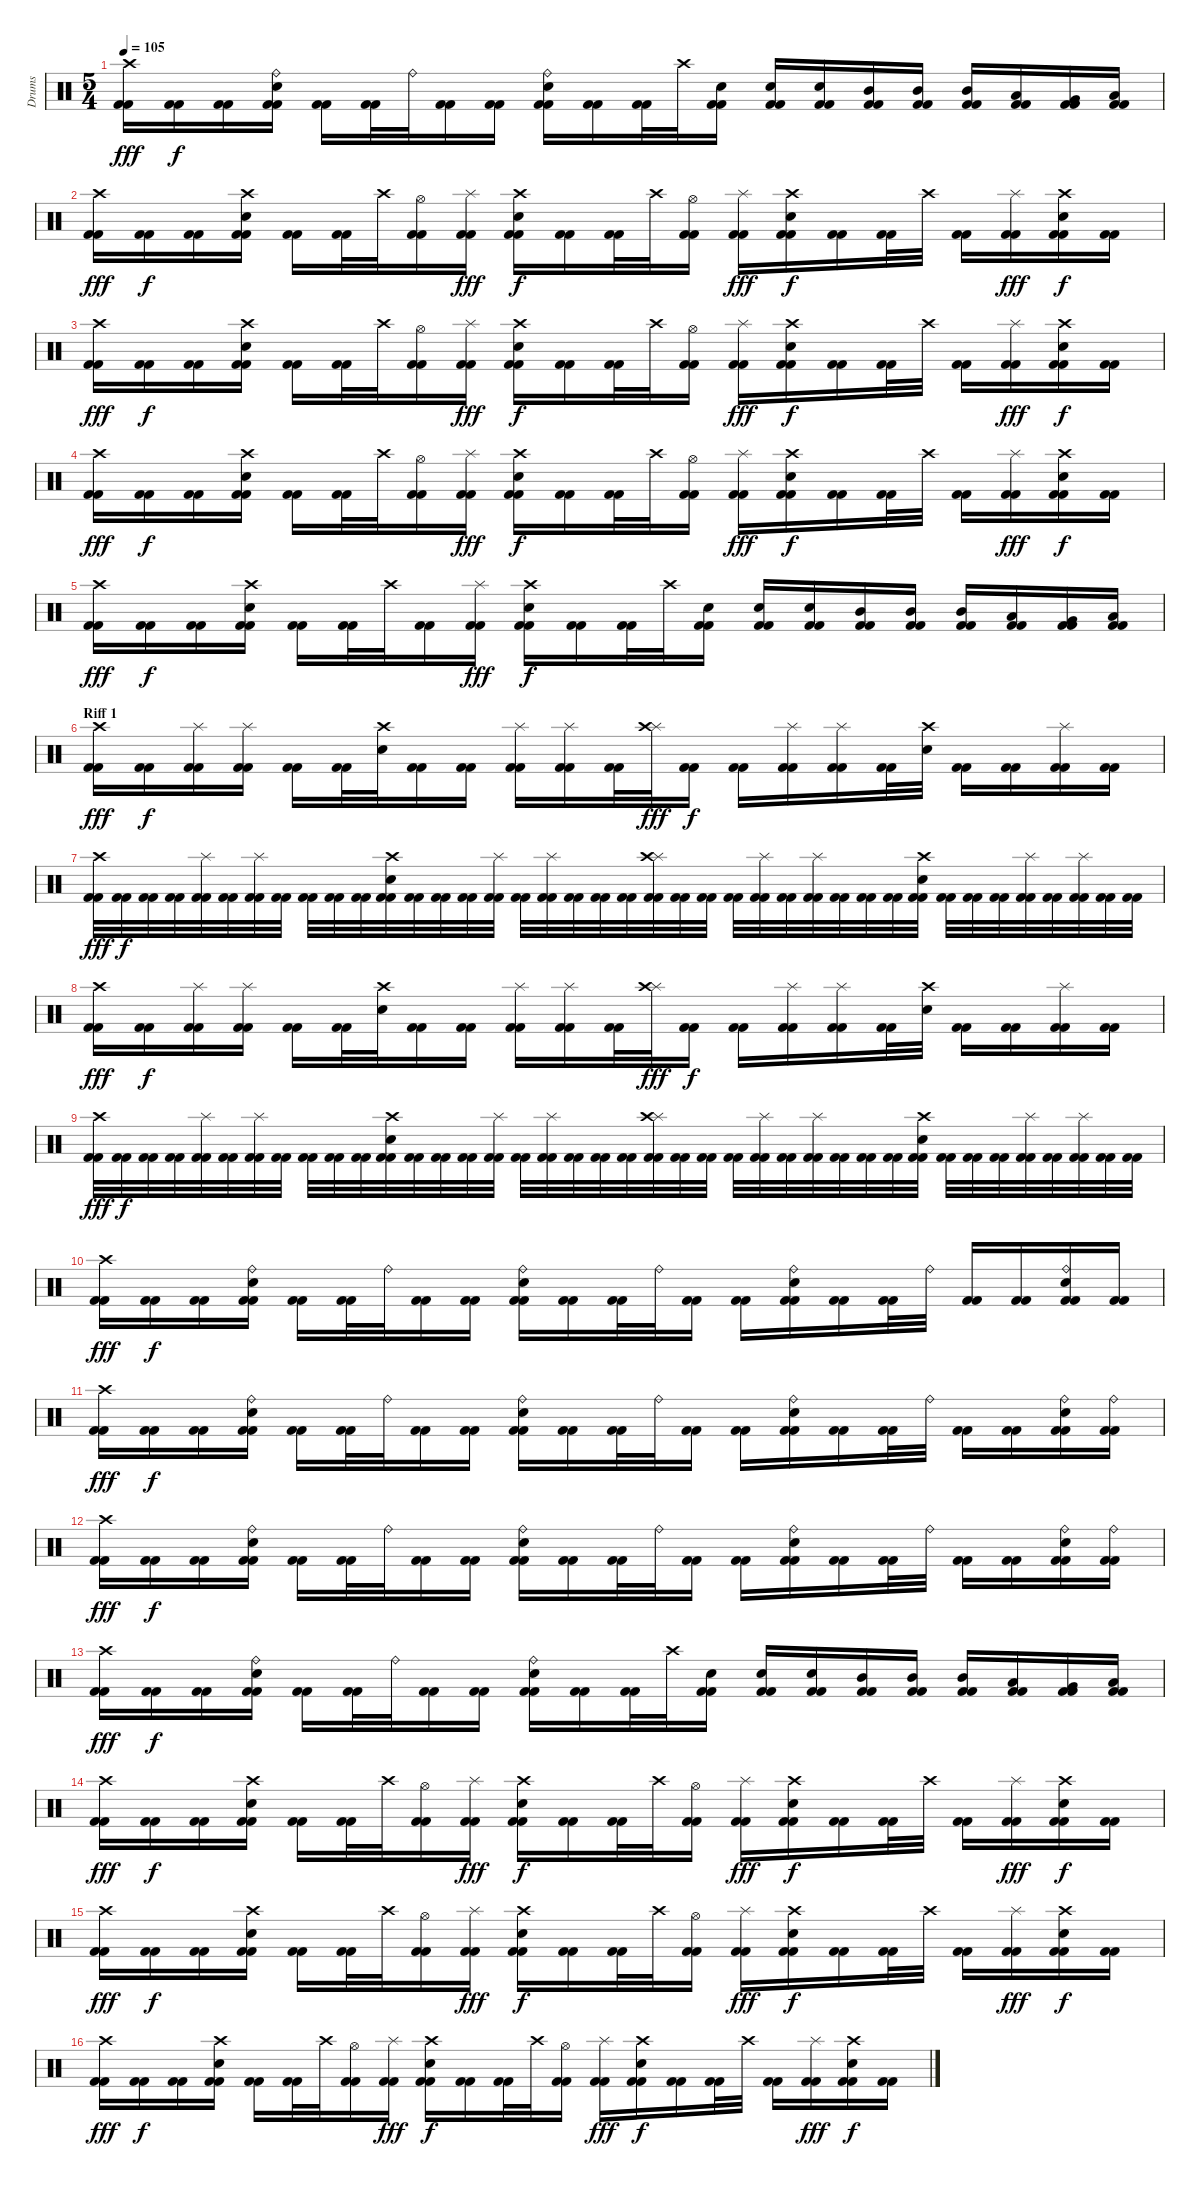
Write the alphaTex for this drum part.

\track ("Drums" "Drums") {instrument percussion}
\staff {score}
\articulation defaults
\ts (5 4)
\tempo 105
\clef neutral
\ks c
("Crash high (hit)" "Kick (hit) 2" "Kick (hit) 2").16{dy fff} ("Kick (hit) 2" "Kick (hit) 2").16{dy f} ("Kick (hit) 2" "Kick (hit) 2").16 ("Ride (bell)" "Electric Snare (hit)" "Kick (hit) 2" "Kick (hit) 2").16 ("Kick (hit) 2" "Kick (hit) 2").16 ("Kick (hit) 2" "Kick (hit) 2").32 "Ride (bell)".32 ("Kick (hit) 2" "Kick (hit) 2").16 ("Kick (hit) 2" "Kick (hit) 2").16 ("Ride (bell)" "Electric Snare (hit)" "Kick (hit) 2" "Kick (hit) 2").16 ("Kick (hit) 2" "Kick (hit) 2").16 ("Kick (hit) 2" "Kick (hit) 2").32 "Crash high (hit)".32 ("Electric Snare (hit)" "Kick (hit) 2" "Kick (hit) 2").16 ("Electric Snare (hit)" "Kick (hit) 2" "Kick (hit) 2").16 ("Electric Snare (hit)" "Kick (hit) 2" "Kick (hit) 2").16 ("Mid Tom (hit)" "Kick (hit) 2" "Kick (hit) 2").16 ("Mid Tom (hit)" "Kick (hit) 2" "Kick (hit) 2").16 ("Mid Tom (hit)" "Kick (hit) 2" "Kick (hit) 2").16 ("Low Tom (hit)" "Kick (hit) 2" "Kick (hit) 2").16 ("Very Low Tom (hit)" "Kick (hit) 2" "Kick (hit) 2").16 ("Low Floor Tom (hit)" "Kick (hit) 2" "Kick (hit) 2").16 |
("Crash high (hit)" "Kick (hit) 2" "Kick (hit) 2").16{dy fff} ("Kick (hit) 2" "Kick (hit) 2").16{dy f} ("Kick (hit) 2" "Kick (hit) 2").16 ("Crash high (hit)" "Electric Snare (hit)" "Kick (hit) 2" "Kick (hit) 2").16 ("Kick (hit) 2" "Kick (hit) 2").16 ("Kick (hit) 2" "Kick (hit) 2").32 "Crash high (hit)".32 ("Hi-Hat (open)" "Kick (hit) 2" "Kick (hit) 2").16 ("Splash (hit)" "Kick (hit) 2" "Kick (hit) 2").16{dy fff} ("Crash high (hit)" "Electric Snare (hit)" "Kick (hit) 2" "Kick (hit) 2").16{dy f} ("Kick (hit) 2" "Kick (hit) 2").16 ("Kick (hit) 2" "Kick (hit) 2").32 "Crash high (hit)".32 ("Hi-Hat (open)" "Kick (hit) 2" "Kick (hit) 2").16 ("Splash (hit)" "Kick (hit) 2" "Kick (hit) 2").16{dy fff} ("Crash high (hit)" "Electric Snare (hit)" "Kick (hit) 2" "Kick (hit) 2").16{dy f} ("Kick (hit) 2" "Kick (hit) 2").16 ("Kick (hit) 2" "Kick (hit) 2").32 "Crash high (hit)".32 ("Kick (hit) 2" "Kick (hit) 2").16 ("Splash (hit)" "Kick (hit) 2" "Kick (hit) 2").16{dy fff} ("Crash high (hit)" "Electric Snare (hit)" "Kick (hit) 2" "Kick (hit) 2").16{dy f} ("Kick (hit) 2" "Kick (hit) 2").16 |
("Crash high (hit)" "Kick (hit) 2" "Kick (hit) 2").16{dy fff} ("Kick (hit) 2" "Kick (hit) 2").16{dy f} ("Kick (hit) 2" "Kick (hit) 2").16 ("Crash high (hit)" "Electric Snare (hit)" "Kick (hit) 2" "Kick (hit) 2").16 ("Kick (hit) 2" "Kick (hit) 2").16 ("Kick (hit) 2" "Kick (hit) 2").32 "Crash high (hit)".32 ("Hi-Hat (open)" "Kick (hit) 2" "Kick (hit) 2").16 ("Splash (hit)" "Kick (hit) 2" "Kick (hit) 2").16{dy fff} ("Crash high (hit)" "Electric Snare (hit)" "Kick (hit) 2" "Kick (hit) 2").16{dy f} ("Kick (hit) 2" "Kick (hit) 2").16 ("Kick (hit) 2" "Kick (hit) 2").32 "Crash high (hit)".32 ("Hi-Hat (open)" "Kick (hit) 2" "Kick (hit) 2").16 ("Splash (hit)" "Kick (hit) 2" "Kick (hit) 2").16{dy fff} ("Crash high (hit)" "Electric Snare (hit)" "Kick (hit) 2" "Kick (hit) 2").16{dy f} ("Kick (hit) 2" "Kick (hit) 2").16 ("Kick (hit) 2" "Kick (hit) 2").32 "Crash high (hit)".32 ("Kick (hit) 2" "Kick (hit) 2").16 ("Splash (hit)" "Kick (hit) 2" "Kick (hit) 2").16{dy fff} ("Crash high (hit)" "Electric Snare (hit)" "Kick (hit) 2" "Kick (hit) 2").16{dy f} ("Kick (hit) 2" "Kick (hit) 2").16 |
("Crash high (hit)" "Kick (hit) 2" "Kick (hit) 2").16{dy fff} ("Kick (hit) 2" "Kick (hit) 2").16{dy f} ("Kick (hit) 2" "Kick (hit) 2").16 ("Crash high (hit)" "Electric Snare (hit)" "Kick (hit) 2" "Kick (hit) 2").16 ("Kick (hit) 2" "Kick (hit) 2").16 ("Kick (hit) 2" "Kick (hit) 2").32 "Crash high (hit)".32 ("Hi-Hat (open)" "Kick (hit) 2" "Kick (hit) 2").16 ("Splash (hit)" "Kick (hit) 2" "Kick (hit) 2").16{dy fff} ("Crash high (hit)" "Electric Snare (hit)" "Kick (hit) 2" "Kick (hit) 2").16{dy f} ("Kick (hit) 2" "Kick (hit) 2").16 ("Kick (hit) 2" "Kick (hit) 2").32 "Crash high (hit)".32 ("Hi-Hat (open)" "Kick (hit) 2" "Kick (hit) 2").16 ("Splash (hit)" "Kick (hit) 2" "Kick (hit) 2").16{dy fff} ("Crash high (hit)" "Electric Snare (hit)" "Kick (hit) 2" "Kick (hit) 2").16{dy f} ("Kick (hit) 2" "Kick (hit) 2").16 ("Kick (hit) 2" "Kick (hit) 2").32 "Crash high (hit)".32 ("Kick (hit) 2" "Kick (hit) 2").16 ("Splash (hit)" "Kick (hit) 2" "Kick (hit) 2").16{dy fff} ("Crash high (hit)" "Electric Snare (hit)" "Kick (hit) 2" "Kick (hit) 2").16{dy f} ("Kick (hit) 2" "Kick (hit) 2").16 |
("Crash high (hit)" "Kick (hit) 2" "Kick (hit) 2").16{dy fff} ("Kick (hit) 2" "Kick (hit) 2").16{dy f} ("Kick (hit) 2" "Kick (hit) 2").16 ("Crash high (hit)" "Electric Snare (hit)" "Kick (hit) 2" "Kick (hit) 2").16 ("Kick (hit) 2" "Kick (hit) 2").16 ("Kick (hit) 2" "Kick (hit) 2").32 "Crash high (hit)".32 ("Kick (hit) 2" "Kick (hit) 2").16 ("Splash (hit)" "Kick (hit) 2" "Kick (hit) 2").16{dy fff} ("Crash high (hit)" "Electric Snare (hit)" "Kick (hit) 2" "Kick (hit) 2").16{dy f} ("Kick (hit) 2" "Kick (hit) 2").16 ("Kick (hit) 2" "Kick (hit) 2").32 "Crash high (hit)".32 ("Electric Snare (hit)" "Kick (hit) 2" "Kick (hit) 2").16 ("Electric Snare (hit)" "Kick (hit) 2" "Kick (hit) 2").16 ("Electric Snare (hit)" "Kick (hit) 2" "Kick (hit) 2").16 ("Mid Tom (hit)" "Kick (hit) 2" "Kick (hit) 2").16 ("Mid Tom (hit)" "Kick (hit) 2" "Kick (hit) 2").16 ("Mid Tom (hit)" "Kick (hit) 2" "Kick (hit) 2").16 ("Low Tom (hit)" "Kick (hit) 2" "Kick (hit) 2").16 ("Very Low Tom (hit)" "Kick (hit) 2" "Kick (hit) 2").16 ("Low Floor Tom (hit)" "Kick (hit) 2" "Kick (hit) 2").16 |
\section ("" "Riff 1")
("Crash high (hit)" "Kick (hit) 2" "Kick (hit) 2").16{dy fff} ("Kick (hit) 2" "Kick (hit) 2").16{dy f} ("Splash (hit)" "Kick (hit) 2" "Kick (hit) 2").16 ("Splash (hit)" "Kick (hit) 2" "Kick (hit) 2").16 ("Kick (hit) 2" "Kick (hit) 2").16 ("Kick (hit) 2" "Kick (hit) 2").32 ("Crash high (hit)" "Electric Snare (hit)").32 ("Kick (hit) 2" "Kick (hit) 2").16 ("Kick (hit) 2" "Kick (hit) 2").16 ("Splash (hit)" "Kick (hit) 2" "Kick (hit) 2").16 ("Splash (hit)" "Kick (hit) 2" "Kick (hit) 2").16 ("Kick (hit) 2" "Kick (hit) 2").32 ("Splash (hit)" "Crash high (hit)").32{dy fff} ("Kick (hit) 2" "Kick (hit) 2").16{dy f} ("Kick (hit) 2" "Kick (hit) 2").16 ("Splash (hit)" "Kick (hit) 2" "Kick (hit) 2").16 ("Splash (hit)" "Kick (hit) 2" "Kick (hit) 2").16 ("Kick (hit) 2" "Kick (hit) 2").32 ("Crash high (hit)" "Electric Snare (hit)").32 ("Kick (hit) 2" "Kick (hit) 2").16 ("Kick (hit) 2" "Kick (hit) 2").16 ("Splash (hit)" "Kick (hit) 2" "Kick (hit) 2").16 ("Kick (hit) 2" "Kick (hit) 2").16 |
("Crash high (hit)" "Kick (hit) 2" "Kick (hit) 2").32{dy fff} ("Kick (hit) 2" "Kick (hit) 2").32{dy f} ("Kick (hit) 2" "Kick (hit) 2").32 ("Kick (hit) 2" "Kick (hit) 2").32 ("Splash (hit)" "Kick (hit) 2" "Kick (hit) 2").32 ("Kick (hit) 2" "Kick (hit) 2").32 ("Splash (hit)" "Kick (hit) 2" "Kick (hit) 2").32 ("Kick (hit) 2" "Kick (hit) 2").32 ("Kick (hit) 2" "Kick (hit) 2").32 ("Kick (hit) 2" "Kick (hit) 2").32 ("Kick (hit) 2" "Kick (hit) 2").32 ("Crash high (hit)" "Electric Snare (hit)" "Kick (hit) 2" "Kick (hit) 2").32 ("Kick (hit) 2" "Kick (hit) 2").32 ("Kick (hit) 2" "Kick (hit) 2").32 ("Kick (hit) 2" "Kick (hit) 2").32 ("Splash (hit)" "Kick (hit) 2" "Kick (hit) 2").32 ("Kick (hit) 2" "Kick (hit) 2").32 ("Splash (hit)" "Kick (hit) 2" "Kick (hit) 2").32 ("Kick (hit) 2" "Kick (hit) 2").32 ("Kick (hit) 2" "Kick (hit) 2").32 ("Kick (hit) 2" "Kick (hit) 2").32 ("Splash (hit)" "Crash high (hit)" "Kick (hit) 2" "Kick (hit) 2").32 ("Kick (hit) 2" "Kick (hit) 2").32 ("Kick (hit) 2" "Kick (hit) 2").32 ("Kick (hit) 2" "Kick (hit) 2").32 ("Splash (hit)" "Kick (hit) 2" "Kick (hit) 2").32 ("Kick (hit) 2" "Kick (hit) 2").32 ("Splash (hit)" "Kick (hit) 2" "Kick (hit) 2").32 ("Kick (hit) 2" "Kick (hit) 2").32 ("Kick (hit) 2" "Kick (hit) 2").32 ("Kick (hit) 2" "Kick (hit) 2").32 ("Crash high (hit)" "Electric Snare (hit)" "Kick (hit) 2" "Kick (hit) 2").32 ("Kick (hit) 2" "Kick (hit) 2").32 ("Kick (hit) 2" "Kick (hit) 2").32 ("Kick (hit) 2" "Kick (hit) 2").32 ("Splash (hit)" "Kick (hit) 2" "Kick (hit) 2").32 ("Kick (hit) 2" "Kick (hit) 2").32 ("Splash (hit)" "Kick (hit) 2" "Kick (hit) 2").32 ("Kick (hit) 2" "Kick (hit) 2").32 ("Kick (hit) 2" "Kick (hit) 2").32 |
("Crash high (hit)" "Kick (hit) 2" "Kick (hit) 2").16{dy fff} ("Kick (hit) 2" "Kick (hit) 2").16{dy f} ("Splash (hit)" "Kick (hit) 2" "Kick (hit) 2").16 ("Splash (hit)" "Kick (hit) 2" "Kick (hit) 2").16 ("Kick (hit) 2" "Kick (hit) 2").16 ("Kick (hit) 2" "Kick (hit) 2").32 ("Crash high (hit)" "Electric Snare (hit)").32 ("Kick (hit) 2" "Kick (hit) 2").16 ("Kick (hit) 2" "Kick (hit) 2").16 ("Splash (hit)" "Kick (hit) 2" "Kick (hit) 2").16 ("Splash (hit)" "Kick (hit) 2" "Kick (hit) 2").16 ("Kick (hit) 2" "Kick (hit) 2").32 ("Splash (hit)" "Crash high (hit)").32{dy fff} ("Kick (hit) 2" "Kick (hit) 2").16{dy f} ("Kick (hit) 2" "Kick (hit) 2").16 ("Splash (hit)" "Kick (hit) 2" "Kick (hit) 2").16 ("Splash (hit)" "Kick (hit) 2" "Kick (hit) 2").16 ("Kick (hit) 2" "Kick (hit) 2").32 ("Crash high (hit)" "Electric Snare (hit)").32 ("Kick (hit) 2" "Kick (hit) 2").16 ("Kick (hit) 2" "Kick (hit) 2").16 ("Splash (hit)" "Kick (hit) 2" "Kick (hit) 2").16 ("Kick (hit) 2" "Kick (hit) 2").16 |
("Crash high (hit)" "Kick (hit) 2" "Kick (hit) 2").32{dy fff} ("Kick (hit) 2" "Kick (hit) 2").32{dy f} ("Kick (hit) 2" "Kick (hit) 2").32 ("Kick (hit) 2" "Kick (hit) 2").32 ("Splash (hit)" "Kick (hit) 2" "Kick (hit) 2").32 ("Kick (hit) 2" "Kick (hit) 2").32 ("Splash (hit)" "Kick (hit) 2" "Kick (hit) 2").32 ("Kick (hit) 2" "Kick (hit) 2").32 ("Kick (hit) 2" "Kick (hit) 2").32 ("Kick (hit) 2" "Kick (hit) 2").32 ("Kick (hit) 2" "Kick (hit) 2").32 ("Crash high (hit)" "Electric Snare (hit)" "Kick (hit) 2" "Kick (hit) 2").32 ("Kick (hit) 2" "Kick (hit) 2").32 ("Kick (hit) 2" "Kick (hit) 2").32 ("Kick (hit) 2" "Kick (hit) 2").32 ("Splash (hit)" "Kick (hit) 2" "Kick (hit) 2").32 ("Kick (hit) 2" "Kick (hit) 2").32 ("Splash (hit)" "Kick (hit) 2" "Kick (hit) 2").32 ("Kick (hit) 2" "Kick (hit) 2").32 ("Kick (hit) 2" "Kick (hit) 2").32 ("Kick (hit) 2" "Kick (hit) 2").32 ("Splash (hit)" "Crash high (hit)" "Kick (hit) 2" "Kick (hit) 2").32 ("Kick (hit) 2" "Kick (hit) 2").32 ("Kick (hit) 2" "Kick (hit) 2").32 ("Kick (hit) 2" "Kick (hit) 2").32 ("Splash (hit)" "Kick (hit) 2" "Kick (hit) 2").32 ("Kick (hit) 2" "Kick (hit) 2").32 ("Splash (hit)" "Kick (hit) 2" "Kick (hit) 2").32 ("Kick (hit) 2" "Kick (hit) 2").32 ("Kick (hit) 2" "Kick (hit) 2").32 ("Kick (hit) 2" "Kick (hit) 2").32 ("Crash high (hit)" "Electric Snare (hit)" "Kick (hit) 2" "Kick (hit) 2").32 ("Kick (hit) 2" "Kick (hit) 2").32 ("Kick (hit) 2" "Kick (hit) 2").32 ("Kick (hit) 2" "Kick (hit) 2").32 ("Splash (hit)" "Kick (hit) 2" "Kick (hit) 2").32 ("Kick (hit) 2" "Kick (hit) 2").32 ("Splash (hit)" "Kick (hit) 2" "Kick (hit) 2").32 ("Kick (hit) 2" "Kick (hit) 2").32 ("Kick (hit) 2" "Kick (hit) 2").32 |
("Crash high (hit)" "Kick (hit) 2" "Kick (hit) 2").16{dy fff} ("Kick (hit) 2" "Kick (hit) 2").16{dy f} ("Kick (hit) 2" "Kick (hit) 2").16 ("Ride (bell)" "Electric Snare (hit)" "Kick (hit) 2" "Kick (hit) 2").16 ("Kick (hit) 2" "Kick (hit) 2").16 ("Kick (hit) 2" "Kick (hit) 2").32 "Ride (bell)".32 ("Kick (hit) 2" "Kick (hit) 2").16 ("Kick (hit) 2" "Kick (hit) 2").16 ("Ride (bell)" "Electric Snare (hit)" "Kick (hit) 2" "Kick (hit) 2").16 ("Kick (hit) 2" "Kick (hit) 2").16 ("Kick (hit) 2" "Kick (hit) 2").32 "Ride (bell)".32 ("Kick (hit) 2" "Kick (hit) 2").16 ("Kick (hit) 2" "Kick (hit) 2").16 ("Ride (bell)" "Electric Snare (hit)" "Kick (hit) 2" "Kick (hit) 2").16 ("Kick (hit) 2" "Kick (hit) 2").16 ("Kick (hit) 2" "Kick (hit) 2").32 "Ride (bell)".32 ("Kick (hit) 2" "Kick (hit) 2").16 ("Kick (hit) 2" "Kick (hit) 2").16 ("Ride (bell)" "Electric Snare (hit)" "Kick (hit) 2" "Kick (hit) 2").16 ("Kick (hit) 2" "Kick (hit) 2").16 |
("Crash high (hit)" "Kick (hit) 2" "Kick (hit) 2").16{dy fff} ("Kick (hit) 2" "Kick (hit) 2").16{dy f} ("Kick (hit) 2" "Kick (hit) 2").16 ("Ride (bell)" "Electric Snare (hit)" "Kick (hit) 2" "Kick (hit) 2").16 ("Kick (hit) 2" "Kick (hit) 2").16 ("Kick (hit) 2" "Kick (hit) 2").32 "Ride (bell)".32 ("Kick (hit) 2" "Kick (hit) 2").16 ("Kick (hit) 2" "Kick (hit) 2").16 ("Ride (bell)" "Electric Snare (hit)" "Kick (hit) 2" "Kick (hit) 2").16 ("Kick (hit) 2" "Kick (hit) 2").16 ("Kick (hit) 2" "Kick (hit) 2").32 "Ride (bell)".32 ("Kick (hit) 2" "Kick (hit) 2").16 ("Kick (hit) 2" "Kick (hit) 2").16 ("Ride (bell)" "Electric Snare (hit)" "Kick (hit) 2" "Kick (hit) 2").16 ("Kick (hit) 2" "Kick (hit) 2").16 ("Kick (hit) 2" "Kick (hit) 2").32 "Ride (bell)".32 ("Kick (hit) 2" "Kick (hit) 2").16 ("Kick (hit) 2" "Kick (hit) 2").16 ("Ride (bell)" "Electric Snare (hit)" "Kick (hit) 2" "Kick (hit) 2").16 ("Ride (bell)" "Kick (hit) 2" "Kick (hit) 2").16 |
("Crash high (hit)" "Kick (hit) 2" "Kick (hit) 2").16{dy fff} ("Kick (hit) 2" "Kick (hit) 2").16{dy f} ("Kick (hit) 2" "Kick (hit) 2").16 ("Ride (bell)" "Electric Snare (hit)" "Kick (hit) 2" "Kick (hit) 2").16 ("Kick (hit) 2" "Kick (hit) 2").16 ("Kick (hit) 2" "Kick (hit) 2").32 "Ride (bell)".32 ("Kick (hit) 2" "Kick (hit) 2").16 ("Kick (hit) 2" "Kick (hit) 2").16 ("Ride (bell)" "Electric Snare (hit)" "Kick (hit) 2" "Kick (hit) 2").16 ("Kick (hit) 2" "Kick (hit) 2").16 ("Kick (hit) 2" "Kick (hit) 2").32 "Ride (bell)".32 ("Kick (hit) 2" "Kick (hit) 2").16 ("Kick (hit) 2" "Kick (hit) 2").16 ("Ride (bell)" "Electric Snare (hit)" "Kick (hit) 2" "Kick (hit) 2").16 ("Kick (hit) 2" "Kick (hit) 2").16 ("Kick (hit) 2" "Kick (hit) 2").32 "Ride (bell)".32 ("Kick (hit) 2" "Kick (hit) 2").16 ("Kick (hit) 2" "Kick (hit) 2").16 ("Ride (bell)" "Electric Snare (hit)" "Kick (hit) 2" "Kick (hit) 2").16 ("Ride (bell)" "Kick (hit) 2" "Kick (hit) 2").16 |
("Crash high (hit)" "Kick (hit) 2" "Kick (hit) 2").16{dy fff} ("Kick (hit) 2" "Kick (hit) 2").16{dy f} ("Kick (hit) 2" "Kick (hit) 2").16 ("Ride (bell)" "Electric Snare (hit)" "Kick (hit) 2" "Kick (hit) 2").16 ("Kick (hit) 2" "Kick (hit) 2").16 ("Kick (hit) 2" "Kick (hit) 2").32 "Ride (bell)".32 ("Kick (hit) 2" "Kick (hit) 2").16 ("Kick (hit) 2" "Kick (hit) 2").16 ("Ride (bell)" "Electric Snare (hit)" "Kick (hit) 2" "Kick (hit) 2").16 ("Kick (hit) 2" "Kick (hit) 2").16 ("Kick (hit) 2" "Kick (hit) 2").32 "Crash high (hit)".32 ("Electric Snare (hit)" "Kick (hit) 2" "Kick (hit) 2").16 ("Electric Snare (hit)" "Kick (hit) 2" "Kick (hit) 2").16 ("Electric Snare (hit)" "Kick (hit) 2" "Kick (hit) 2").16 ("Mid Tom (hit)" "Kick (hit) 2" "Kick (hit) 2").16 ("Mid Tom (hit)" "Kick (hit) 2" "Kick (hit) 2").16 ("Mid Tom (hit)" "Kick (hit) 2" "Kick (hit) 2").16 ("Low Tom (hit)" "Kick (hit) 2" "Kick (hit) 2").16 ("Very Low Tom (hit)" "Kick (hit) 2" "Kick (hit) 2").16 ("Low Floor Tom (hit)" "Kick (hit) 2" "Kick (hit) 2").16 |
("Crash high (hit)" "Kick (hit) 2" "Kick (hit) 2").16{dy fff} ("Kick (hit) 2" "Kick (hit) 2").16{dy f} ("Kick (hit) 2" "Kick (hit) 2").16 ("Crash high (hit)" "Electric Snare (hit)" "Kick (hit) 2" "Kick (hit) 2").16 ("Kick (hit) 2" "Kick (hit) 2").16 ("Kick (hit) 2" "Kick (hit) 2").32 "Crash high (hit)".32 ("Hi-Hat (open)" "Kick (hit) 2" "Kick (hit) 2").16 ("Splash (hit)" "Kick (hit) 2" "Kick (hit) 2").16{dy fff} ("Crash high (hit)" "Electric Snare (hit)" "Kick (hit) 2" "Kick (hit) 2").16{dy f} ("Kick (hit) 2" "Kick (hit) 2").16 ("Kick (hit) 2" "Kick (hit) 2").32 "Crash high (hit)".32 ("Hi-Hat (open)" "Kick (hit) 2" "Kick (hit) 2").16 ("Splash (hit)" "Kick (hit) 2" "Kick (hit) 2").16{dy fff} ("Crash high (hit)" "Electric Snare (hit)" "Kick (hit) 2" "Kick (hit) 2").16{dy f} ("Kick (hit) 2" "Kick (hit) 2").16 ("Kick (hit) 2" "Kick (hit) 2").32 "Crash high (hit)".32 ("Kick (hit) 2" "Kick (hit) 2").16 ("Splash (hit)" "Kick (hit) 2" "Kick (hit) 2").16{dy fff} ("Crash high (hit)" "Electric Snare (hit)" "Kick (hit) 2" "Kick (hit) 2").16{dy f} ("Kick (hit) 2" "Kick (hit) 2").16 |
("Crash high (hit)" "Kick (hit) 2" "Kick (hit) 2").16{dy fff} ("Kick (hit) 2" "Kick (hit) 2").16{dy f} ("Kick (hit) 2" "Kick (hit) 2").16 ("Crash high (hit)" "Electric Snare (hit)" "Kick (hit) 2" "Kick (hit) 2").16 ("Kick (hit) 2" "Kick (hit) 2").16 ("Kick (hit) 2" "Kick (hit) 2").32 "Crash high (hit)".32 ("Hi-Hat (open)" "Kick (hit) 2" "Kick (hit) 2").16 ("Splash (hit)" "Kick (hit) 2" "Kick (hit) 2").16{dy fff} ("Crash high (hit)" "Electric Snare (hit)" "Kick (hit) 2" "Kick (hit) 2").16{dy f} ("Kick (hit) 2" "Kick (hit) 2").16 ("Kick (hit) 2" "Kick (hit) 2").32 "Crash high (hit)".32 ("Hi-Hat (open)" "Kick (hit) 2" "Kick (hit) 2").16 ("Splash (hit)" "Kick (hit) 2" "Kick (hit) 2").16{dy fff} ("Crash high (hit)" "Electric Snare (hit)" "Kick (hit) 2" "Kick (hit) 2").16{dy f} ("Kick (hit) 2" "Kick (hit) 2").16 ("Kick (hit) 2" "Kick (hit) 2").32 "Crash high (hit)".32 ("Kick (hit) 2" "Kick (hit) 2").16 ("Splash (hit)" "Kick (hit) 2" "Kick (hit) 2").16{dy fff} ("Crash high (hit)" "Electric Snare (hit)" "Kick (hit) 2" "Kick (hit) 2").16{dy f} ("Kick (hit) 2" "Kick (hit) 2").16 |
("Crash high (hit)" "Kick (hit) 2" "Kick (hit) 2").16{dy fff} ("Kick (hit) 2" "Kick (hit) 2").16{dy f} ("Kick (hit) 2" "Kick (hit) 2").16 ("Crash high (hit)" "Electric Snare (hit)" "Kick (hit) 2" "Kick (hit) 2").16 ("Kick (hit) 2" "Kick (hit) 2").16 ("Kick (hit) 2" "Kick (hit) 2").32 "Crash high (hit)".32 ("Hi-Hat (open)" "Kick (hit) 2" "Kick (hit) 2").16 ("Splash (hit)" "Kick (hit) 2" "Kick (hit) 2").16{dy fff} ("Crash high (hit)" "Electric Snare (hit)" "Kick (hit) 2" "Kick (hit) 2").16{dy f} ("Kick (hit) 2" "Kick (hit) 2").16 ("Kick (hit) 2" "Kick (hit) 2").32 "Crash high (hit)".32 ("Hi-Hat (open)" "Kick (hit) 2" "Kick (hit) 2").16 ("Splash (hit)" "Kick (hit) 2" "Kick (hit) 2").16{dy fff} ("Crash high (hit)" "Electric Snare (hit)" "Kick (hit) 2" "Kick (hit) 2").16{dy f} ("Kick (hit) 2" "Kick (hit) 2").16 ("Kick (hit) 2" "Kick (hit) 2").32 "Crash high (hit)".32 ("Kick (hit) 2" "Kick (hit) 2").16 ("Splash (hit)" "Kick (hit) 2" "Kick (hit) 2").16{dy fff} ("Crash high (hit)" "Electric Snare (hit)" "Kick (hit) 2" "Kick (hit) 2").16{dy f} ("Kick (hit) 2" "Kick (hit) 2").16
